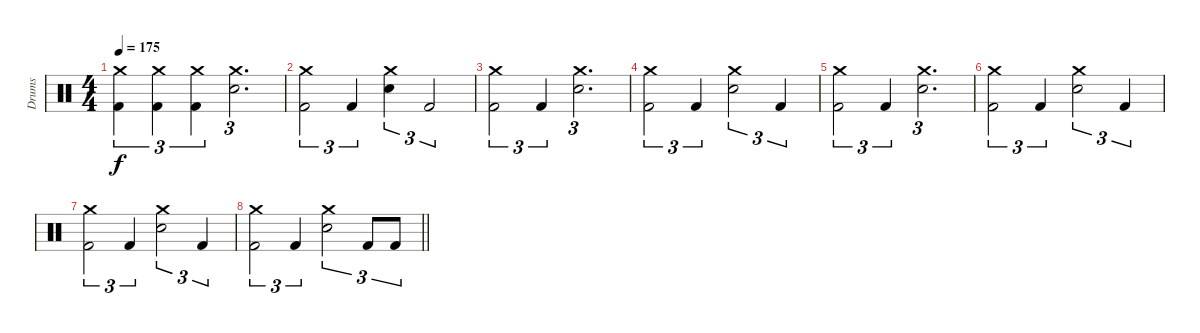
\track ("Drums" "Drums") {instrument percussion}
\staff {score}
\articulation defaults
\ts (4 4)
\section ("" "")
\tempo 175
\clef neutral
\ks c
("Kick (hit) 2" "Crash medium (hit)").4{tu (3 2) dy f} ("Kick (hit) 2" "Crash medium (hit)").4{tu (3 2)} ("Kick (hit) 2" "Crash medium (hit)").4{tu (3 2)} ("Snare (hit) 2" "Crash medium (hit)").2{d tu (3 2)} |
("Kick (hit) 2" "Crash medium (hit)").2{tu (3 2)} "Kick (hit) 2".4{tu (3 2)} ("Snare (hit) 2" "Crash medium (hit)").4{tu (3 2)} "Kick (hit) 2".2{tu (3 2)} |
("Kick (hit) 2" "Crash medium (hit)").2{tu (3 2)} "Kick (hit) 2".4{tu (3 2)} ("Snare (hit) 2" "Crash medium (hit)").2{d tu (3 2)} |
("Kick (hit) 2" "Crash medium (hit)").2{tu (3 2) volume 1} "Kick (hit) 2".4{tu (3 2)} ("Snare (hit) 2" "Crash medium (hit)").2{tu (3 2)} "Kick (hit) 2".4{tu (3 2)} |
("Kick (hit) 2" "Crash medium (hit)").2{tu (3 2)} "Kick (hit) 2".4{tu (3 2)} ("Snare (hit) 2" "Crash medium (hit)").2{d tu (3 2)} |
("Kick (hit) 2" "Crash medium (hit)").2{tu (3 2)} "Kick (hit) 2".4{tu (3 2)} ("Snare (hit) 2" "Crash medium (hit)").2{tu (3 2)} "Kick (hit) 2".4{tu (3 2)} |
("Kick (hit) 2" "Crash medium (hit)").2{tu (3 2)} "Kick (hit) 2".4{tu (3 2)} ("Snare (hit) 2" "Crash medium (hit)").2{tu (3 2)} "Kick (hit) 2".4{tu (3 2)} |
\barLineRight lightlight
("Kick (hit) 2" "Crash medium (hit)").2{tu (3 2)} "Kick (hit) 2".4{tu (3 2)} ("Snare (hit) 2" "Crash medium (hit)").2{tu (3 2)} "Kick (hit) 2".8{tu (3 2)} "Kick (hit) 2".8{tu (3 2)}
